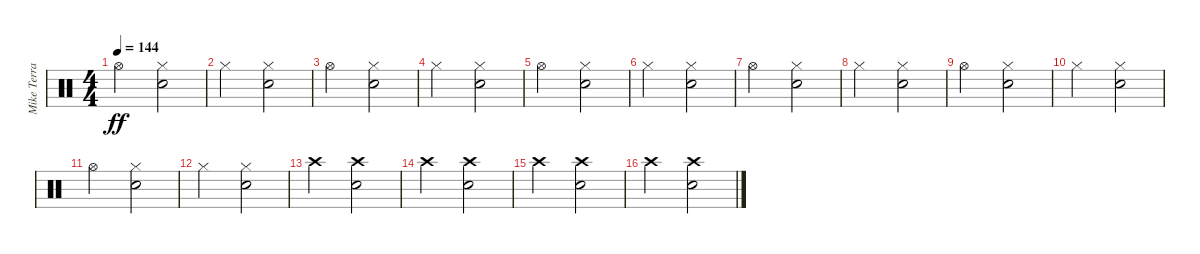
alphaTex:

\track ("Mike Terrana" "Mike Terra") {instrument percussion}
\staff {score}
\articulation defaults
\ts (4 4)
\tempo 144
\clef neutral
\ks c "Hi-Hat (open)".2{dy ff}
("Snare (hit) 2" "Hi-Hat (closed)").2 |
"Hi-Hat (closed)".2 ("Snare (hit) 2" "Hi-Hat (closed)").2 |
"Hi-Hat (open)".2 ("Snare (hit) 2" "Hi-Hat (closed)").2 |
"Hi-Hat (closed)".2 ("Snare (hit) 2" "Hi-Hat (closed)").2 |
"Hi-Hat (open)".2 ("Snare (hit) 2" "Hi-Hat (closed)").2 |
"Hi-Hat (closed)".2 ("Snare (hit) 2" "Hi-Hat (closed)").2 |
"Hi-Hat (open)".2 ("Snare (hit) 2" "Hi-Hat (closed)").2 |
"Hi-Hat (closed)".2 ("Snare (hit) 2" "Hi-Hat (closed)").2 |
"Hi-Hat (open)".2 ("Snare (hit) 2" "Hi-Hat (closed)").2 |
"Hi-Hat (closed)".2 ("Snare (hit) 2" "Hi-Hat (closed)").2 |
"Hi-Hat (open)".2 ("Snare (hit) 2" "Hi-Hat (closed)").2 |
"Hi-Hat (closed)".2 ("Snare (hit) 2" "Hi-Hat (closed)").2 |
"Crash high (hit)".2 ("Snare (hit) 2" "Crash high (hit)").2 |
"Crash high (hit)".2 ("Snare (hit) 2" "Crash high (hit)").2 |
"Crash high (hit)".2 ("Snare (hit) 2" "Crash high (hit)").2 |
"Crash high (hit)".2 ("Snare (hit) 2" "Crash high (hit)").2
